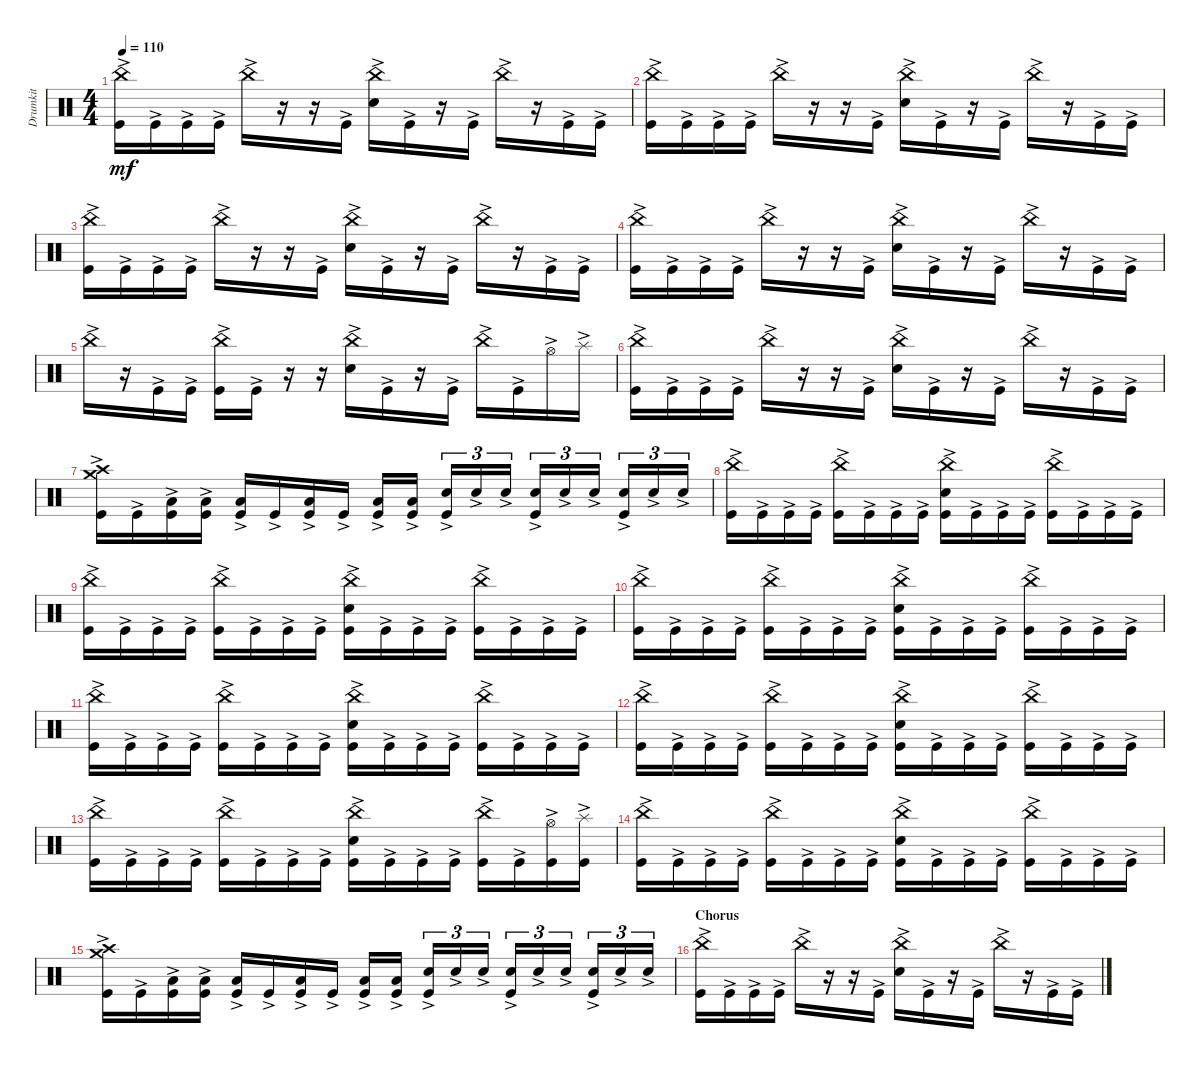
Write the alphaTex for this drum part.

\track ("Drumkit" "Drumkit") {instrument percussion}
\staff {score}
\articulation defaults
\ts (4 4)
\tempo 110
\clef neutral
\ks c
("China (hit)"{ac} "Kick (hit)"{ac}).16{dy mf} "Kick (hit)"{ac}.16 "Kick (hit)"{ac}.16 "Kick (hit)"{ac}.16 "China (hit)"{ac}.16 r.16 r.16 "Kick (hit)"{ac}.16 ("China (hit)"{ac} "Snare (hit) 2"{ac}).16 "Kick (hit)"{ac}.16 r.16 "Kick (hit)"{ac}.16 "China (hit)"{ac}.16 r.16 "Kick (hit)"{ac}.16 "Kick (hit)"{ac}.16 |
("China (hit)"{ac} "Kick (hit)"{ac}).16 "Kick (hit)"{ac}.16 "Kick (hit)"{ac}.16 "Kick (hit)"{ac}.16 "China (hit)"{ac}.16 r.16 r.16 "Kick (hit)"{ac}.16 ("China (hit)"{ac} "Snare (hit) 2"{ac}).16 "Kick (hit)"{ac}.16 r.16 "Kick (hit)"{ac}.16 "China (hit)"{ac}.16 r.16 "Kick (hit)"{ac}.16 "Kick (hit)"{ac}.16 |
("China (hit)"{ac} "Kick (hit)"{ac}).16 "Kick (hit)"{ac}.16 "Kick (hit)"{ac}.16 "Kick (hit)"{ac}.16 "China (hit)"{ac}.16 r.16 r.16 "Kick (hit)"{ac}.16 ("China (hit)"{ac} "Snare (hit) 2"{ac}).16 "Kick (hit)"{ac}.16 r.16 "Kick (hit)"{ac}.16 "China (hit)"{ac}.16 r.16 "Kick (hit)"{ac}.16 "Kick (hit)"{ac}.16 |
("China (hit)"{ac} "Kick (hit)"{ac}).16 "Kick (hit)"{ac}.16 "Kick (hit)"{ac}.16 "Kick (hit)"{ac}.16 "China (hit)"{ac}.16 r.16 r.16 "Kick (hit)"{ac}.16 ("China (hit)"{ac} "Snare (hit) 2"{ac}).16 "Kick (hit)"{ac}.16 r.16 "Kick (hit)"{ac}.16 "China (hit)"{ac}.16 r.16 "Kick (hit)"{ac}.16 "Kick (hit)"{ac}.16 |
"China (hit)"{ac}.16 r.16 "Kick (hit)"{ac}.16 "Kick (hit)"{ac}.16 ("China (hit)"{ac} "Kick (hit)"{ac}).16 "Kick (hit)"{ac}.16 r.16 r.16 ("China (hit)"{ac} "Snare (hit) 2"{ac}).16 "Kick (hit)"{ac}.16 r.16 "Kick (hit)"{ac}.16 "China (hit)"{ac}.16 "Kick (hit)"{ac}.16 "Hi-Hat (open)"{ac}.16 "Splash (hit)"{ac}.16 |
("China (hit)"{ac} "Kick (hit)"{ac}).16 "Kick (hit)"{ac}.16 "Kick (hit)"{ac}.16 "Kick (hit)"{ac}.16 "China (hit)"{ac}.16 r.16 r.16 "Kick (hit)"{ac}.16 ("China (hit)"{ac} "Snare (hit) 2"{ac}).16 "Kick (hit)"{ac}.16 r.16 "Kick (hit)"{ac}.16 "China (hit)"{ac}.16 r.16 "Kick (hit)"{ac}.16 "Kick (hit)"{ac}.16 |
("Crash high (hit)"{ac} "Crash medium (hit)"{ac} "Kick (hit)"{ac}).16 "Kick (hit)"{ac}.16 ("Low Floor Tom (hit)"{ac} "Kick (hit)"{ac}).16 ("Low Floor Tom (hit)"{ac} "Kick (hit)"{ac}).16 ("Low Floor Tom (hit)"{ac} "Kick (hit)"{ac}).16 "Kick (hit)"{ac}.16 ("Low Floor Tom (hit)"{ac} "Kick (hit)"{ac}).16 "Kick (hit)"{ac}.16 ("Low Floor Tom (hit)"{ac} "Kick (hit)"{ac}).16 ("Low Floor Tom (hit)"{ac} "Kick (hit)"{ac}).16 ("Snare (hit) 2"{ac} "Kick (hit)"{ac}).16{tu (3 2)} "Snare (hit) 2"{ac}.16{tu (3 2)} "Snare (hit) 2"{ac}.16{tu (3 2)} ("Snare (hit) 2"{ac} "Kick (hit)"{ac}).16{tu (3 2)} "Snare (hit) 2"{ac}.16{tu (3 2)} "Snare (hit) 2"{ac}.16{tu (3 2)} ("Snare (hit) 2"{ac} "Kick (hit)"{ac}).16{tu (3 2)} "Snare (hit) 2"{ac}.16{tu (3 2)} "Snare (hit) 2"{ac}.16{tu (3 2)} |
("China (hit)"{ac} "Kick (hit)"{ac}).16 "Kick (hit)"{ac}.16 "Kick (hit)"{ac}.16 "Kick (hit)"{ac}.16 ("China (hit)"{ac} "Kick (hit)"{ac}).16 "Kick (hit)"{ac}.16 "Kick (hit)"{ac}.16 "Kick (hit)"{ac}.16 ("China (hit)"{ac} "Snare (hit) 2"{ac} "Kick (hit)"{ac}).16 "Kick (hit)"{ac}.16 "Kick (hit)"{ac}.16 "Kick (hit)"{ac}.16 ("China (hit)"{ac} "Kick (hit)"{ac}).16 "Kick (hit)"{ac}.16 "Kick (hit)"{ac}.16 "Kick (hit)"{ac}.16 |
("China (hit)"{ac} "Kick (hit)"{ac}).16 "Kick (hit)"{ac}.16 "Kick (hit)"{ac}.16 "Kick (hit)"{ac}.16 ("China (hit)"{ac} "Kick (hit)"{ac}).16 "Kick (hit)"{ac}.16 "Kick (hit)"{ac}.16 "Kick (hit)"{ac}.16 ("China (hit)"{ac} "Snare (hit) 2"{ac} "Kick (hit)"{ac}).16 "Kick (hit)"{ac}.16 "Kick (hit)"{ac}.16 "Kick (hit)"{ac}.16 ("China (hit)"{ac} "Kick (hit)"{ac}).16 "Kick (hit)"{ac}.16 "Kick (hit)"{ac}.16 "Kick (hit)"{ac}.16 |
("China (hit)"{ac} "Kick (hit)"{ac}).16 "Kick (hit)"{ac}.16 "Kick (hit)"{ac}.16 "Kick (hit)"{ac}.16 ("China (hit)"{ac} "Kick (hit)"{ac}).16 "Kick (hit)"{ac}.16 "Kick (hit)"{ac}.16 "Kick (hit)"{ac}.16 ("China (hit)"{ac} "Snare (hit) 2"{ac} "Kick (hit)"{ac}).16 "Kick (hit)"{ac}.16 "Kick (hit)"{ac}.16 "Kick (hit)"{ac}.16 ("China (hit)"{ac} "Kick (hit)"{ac}).16 "Kick (hit)"{ac}.16 "Kick (hit)"{ac}.16 "Kick (hit)"{ac}.16 |
("China (hit)"{ac} "Kick (hit)"{ac}).16 "Kick (hit)"{ac}.16 "Kick (hit)"{ac}.16 "Kick (hit)"{ac}.16 ("China (hit)"{ac} "Kick (hit)"{ac}).16 "Kick (hit)"{ac}.16 "Kick (hit)"{ac}.16 "Kick (hit)"{ac}.16 ("China (hit)"{ac} "Snare (hit) 2"{ac} "Kick (hit)"{ac}).16 "Kick (hit)"{ac}.16 "Kick (hit)"{ac}.16 "Kick (hit)"{ac}.16 ("China (hit)"{ac} "Kick (hit)"{ac}).16 "Kick (hit)"{ac}.16 "Kick (hit)"{ac}.16 "Kick (hit)"{ac}.16 |
("China (hit)"{ac} "Kick (hit)"{ac}).16 "Kick (hit)"{ac}.16 "Kick (hit)"{ac}.16 "Kick (hit)"{ac}.16 ("China (hit)"{ac} "Kick (hit)"{ac}).16 "Kick (hit)"{ac}.16 "Kick (hit)"{ac}.16 "Kick (hit)"{ac}.16 ("China (hit)"{ac} "Snare (hit) 2"{ac} "Kick (hit)"{ac}).16 "Kick (hit)"{ac}.16 "Kick (hit)"{ac}.16 "Kick (hit)"{ac}.16 ("China (hit)"{ac} "Kick (hit)"{ac}).16 "Kick (hit)"{ac}.16 "Kick (hit)"{ac}.16 "Kick (hit)"{ac}.16 |
("China (hit)"{ac} "Kick (hit)"{ac}).16 "Kick (hit)"{ac}.16 "Kick (hit)"{ac}.16 "Kick (hit)"{ac}.16 ("China (hit)"{ac} "Kick (hit)"{ac}).16 "Kick (hit)"{ac}.16 "Kick (hit)"{ac}.16 "Kick (hit)"{ac}.16 ("China (hit)"{ac} "Snare (hit) 2"{ac} "Kick (hit)"{ac}).16 "Kick (hit)"{ac}.16 "Kick (hit)"{ac}.16 "Kick (hit)"{ac}.16 ("China (hit)"{ac} "Kick (hit)"{ac}).16 "Kick (hit)"{ac}.16 ("Hi-Hat (open)"{ac} "Kick (hit)"{ac}).16 ("Splash (hit)"{ac} "Kick (hit)"{ac}).16 |
("China (hit)"{ac} "Kick (hit)"{ac}).16 "Kick (hit)"{ac}.16 "Kick (hit)"{ac}.16 "Kick (hit)"{ac}.16 ("China (hit)"{ac} "Kick (hit)"{ac}).16 "Kick (hit)"{ac}.16 "Kick (hit)"{ac}.16 "Kick (hit)"{ac}.16 ("China (hit)"{ac} "Snare (hit) 2"{ac} "Kick (hit)"{ac}).16 "Kick (hit)"{ac}.16 "Kick (hit)"{ac}.16 "Kick (hit)"{ac}.16 ("China (hit)"{ac} "Kick (hit)"{ac}).16 "Kick (hit)"{ac}.16 "Kick (hit)"{ac}.16 "Kick (hit)"{ac}.16 |
("Crash high (hit)"{ac} "Crash medium (hit)"{ac} "Kick (hit)"{ac}).16 "Kick (hit)"{ac}.16 ("Low Floor Tom (hit)"{ac} "Kick (hit)"{ac}).16 ("Low Floor Tom (hit)"{ac} "Kick (hit)"{ac}).16 ("Low Floor Tom (hit)"{ac} "Kick (hit)"{ac}).16 "Kick (hit)"{ac}.16 ("Low Floor Tom (hit)"{ac} "Kick (hit)"{ac}).16 "Kick (hit)"{ac}.16 ("Low Floor Tom (hit)"{ac} "Kick (hit)"{ac}).16 ("Low Floor Tom (hit)"{ac} "Kick (hit)"{ac}).16 ("Snare (hit) 2"{ac} "Kick (hit)"{ac}).16{tu (3 2)} "Snare (hit) 2"{ac}.16{tu (3 2)} "Snare (hit) 2"{ac}.16{tu (3 2)} ("Snare (hit) 2"{ac} "Kick (hit)"{ac}).16{tu (3 2)} "Snare (hit) 2"{ac}.16{tu (3 2)} "Snare (hit) 2"{ac}.16{tu (3 2)} ("Snare (hit) 2"{ac} "Kick (hit)"{ac}).16{tu (3 2)} "Snare (hit) 2"{ac}.16{tu (3 2)} "Snare (hit) 2"{ac}.16{tu (3 2)} |
\section ("" "Chorus")
("China (hit)"{ac} "Kick (hit)"{ac}).16 "Kick (hit)"{ac}.16 "Kick (hit)"{ac}.16 "Kick (hit)"{ac}.16 "China (hit)"{ac}.16 r.16 r.16 "Kick (hit)"{ac}.16 ("China (hit)"{ac} "Snare (hit) 2"{ac}).16 "Kick (hit)"{ac}.16 r.16 "Kick (hit)"{ac}.16 "China (hit)"{ac}.16 r.16 "Kick (hit)"{ac}.16 "Kick (hit)"{ac}.16
